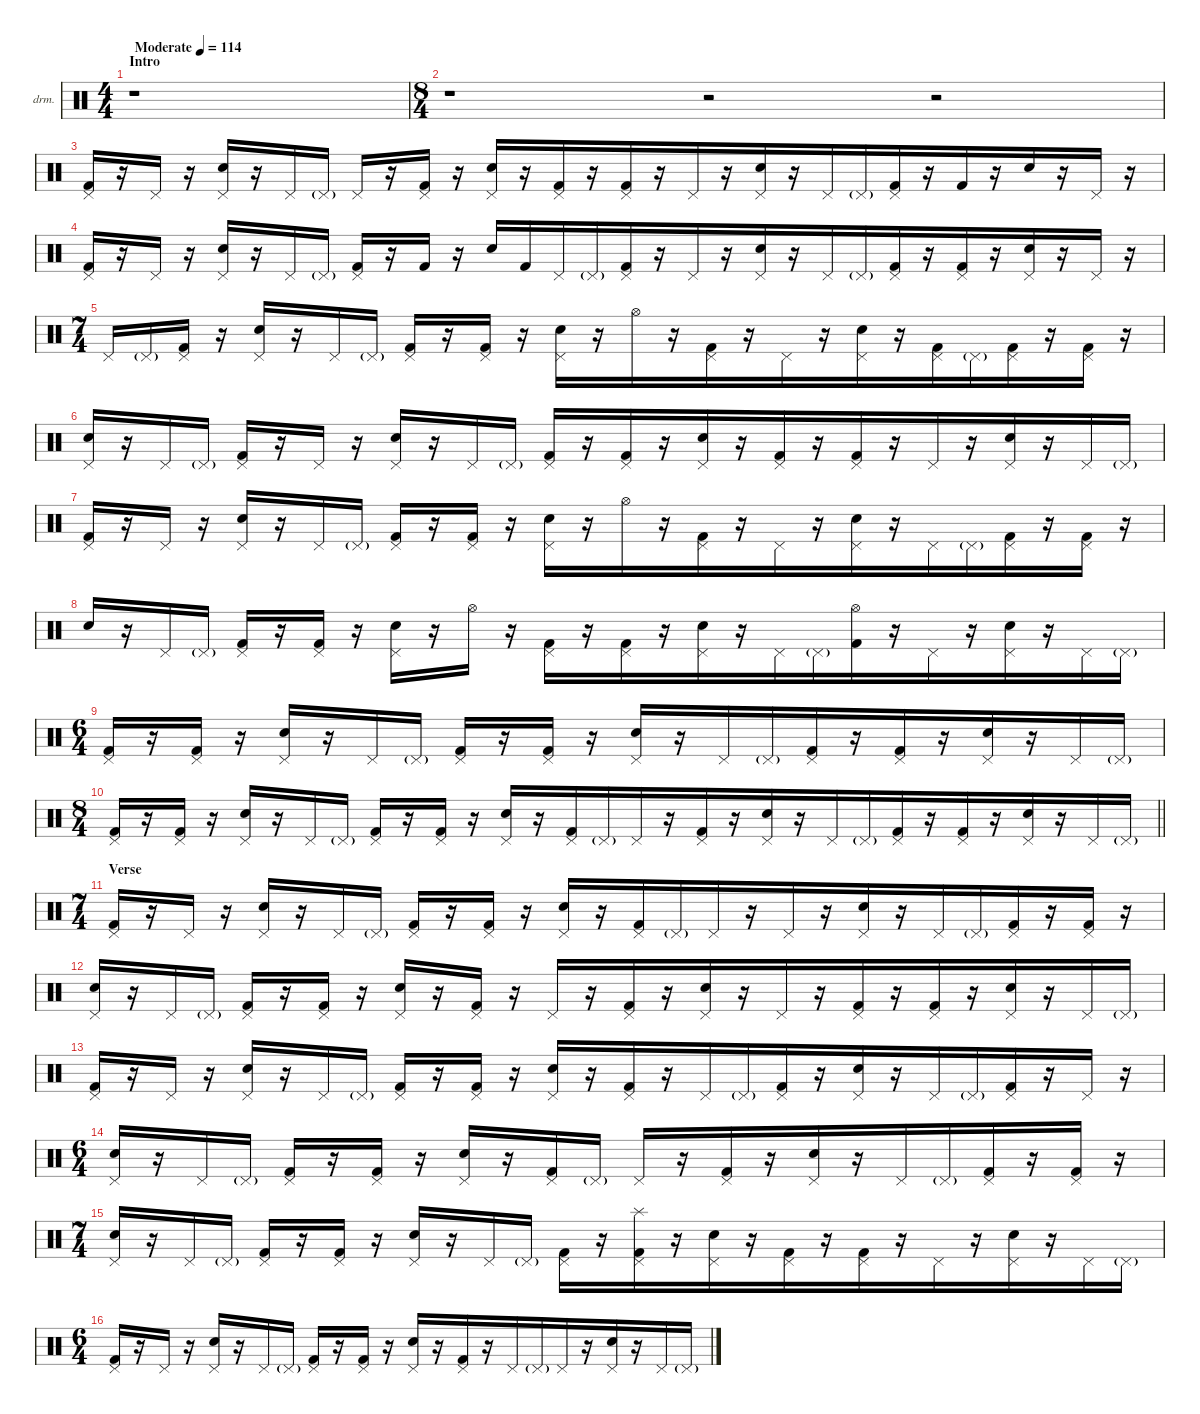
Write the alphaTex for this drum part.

\defaultSystemsLayout 4
\hideDynamics
\bracketExtendMode nobrackets
\firstSystemTrackNameOrientation horizontal
\otherSystemsTrackNameOrientation horizontal
\track ("Drums" "drm.") {instrument percussion}
\staff {score}
\articulation defaults
\ts (4 4)
\beaming (8 2 2 2 2)
\section ("" "Intro")
\tempo (114 "Moderate")
\clef neutral
\ks c
r.1{dy f} |
\ts (8 4)
\beaming (8 2 2 2 10)
r.1 r.2 r.2 |
("Pedal Hi-Hat (hit)" "Kick (hit) 2").16 r.16 "Pedal Hi-Hat (hit)".16 r.16 ("Pedal Hi-Hat (hit)" "Snare (hit) 2").16 r.16 "Pedal Hi-Hat (hit)".16 "Pedal Hi-Hat (hit)"{g}.16{dy mf} "Pedal Hi-Hat (hit)".16{dy f} r.16 ("Pedal Hi-Hat (hit)" "Kick (hit) 2").16 r.16 ("Pedal Hi-Hat (hit)" "Snare (hit) 2").16 r.16 ("Pedal Hi-Hat (hit)" "Kick (hit) 2").16 r.16 ("Pedal Hi-Hat (hit)" "Kick (hit) 2").16 r.16 "Pedal Hi-Hat (hit)".16 r.16 ("Pedal Hi-Hat (hit)" "Snare (hit) 2").16 r.16 "Pedal Hi-Hat (hit)".16 "Pedal Hi-Hat (hit)"{g}.16{dy mf} ("Pedal Hi-Hat (hit)" "Kick (hit) 2").16{dy f} r.16 "Kick (hit) 2".16 r.16 "Snare (hit) 2".16 r.16 "Pedal Hi-Hat (hit)".16 r.16 |
("Pedal Hi-Hat (hit)" "Kick (hit) 2").16 r.16 "Pedal Hi-Hat (hit)".16 r.16 ("Pedal Hi-Hat (hit)" "Snare (hit) 2").16 r.16 "Pedal Hi-Hat (hit)".16 "Pedal Hi-Hat (hit)"{g}.16{dy mf} ("Pedal Hi-Hat (hit)" "Kick (hit) 2").16{dy f} r.16 "Kick (hit) 2".16 r.16 "Snare (hit) 2".16 "Kick (hit) 2".16 "Pedal Hi-Hat (hit)".16 "Pedal Hi-Hat (hit)"{g}.16{dy mf} ("Pedal Hi-Hat (hit)" "Kick (hit) 2").16{dy f} r.16 "Pedal Hi-Hat (hit)".16 r.16 ("Pedal Hi-Hat (hit)" "Snare (hit) 2").16 r.16 "Pedal Hi-Hat (hit)".16 "Pedal Hi-Hat (hit)"{g}.16{dy mf} ("Pedal Hi-Hat (hit)" "Kick (hit) 2").16{dy f} r.16 ("Pedal Hi-Hat (hit)" "Kick (hit) 2").16 r.16 ("Pedal Hi-Hat (hit)" "Snare (hit) 2").16 r.16 "Pedal Hi-Hat (hit)".16 r.16 |
\ts (7 4)
\beaming (8 2 2 2 8)
"Pedal Hi-Hat (hit)".16 "Pedal Hi-Hat (hit)"{g}.16{dy mf} ("Pedal Hi-Hat (hit)" "Kick (hit) 2").16{dy f} r.16 ("Pedal Hi-Hat (hit)" "Snare (hit) 2").16 r.16 "Pedal Hi-Hat (hit)".16 "Pedal Hi-Hat (hit)"{g}.16{dy mf} ("Pedal Hi-Hat (hit)" "Kick (hit) 2").16{dy f} r.16 ("Pedal Hi-Hat (hit)" "Kick (hit) 2").16 r.16 ("Pedal Hi-Hat (hit)" "Snare (hit) 2").16 r.16 "Hi-Hat (open)".16 r.16 ("Pedal Hi-Hat (hit)" "Kick (hit) 2").16 r.16 "Pedal Hi-Hat (hit)".16 r.16 ("Pedal Hi-Hat (hit)" "Snare (hit) 2").16 r.16 ("Pedal Hi-Hat (hit)" "Kick (hit) 2").16 "Pedal Hi-Hat (hit)"{g}.16{dy mf} ("Pedal Hi-Hat (hit)" "Kick (hit) 2").16{dy f} r.16 ("Pedal Hi-Hat (hit)" "Kick (hit) 2").16 r.16 |
("Pedal Hi-Hat (hit)" "Snare (hit) 2").16 r.16 "Pedal Hi-Hat (hit)".16 "Pedal Hi-Hat (hit)"{g}.16{dy mf} ("Pedal Hi-Hat (hit)" "Kick (hit) 2").16{dy f} r.16 "Pedal Hi-Hat (hit)".16 r.16 ("Pedal Hi-Hat (hit)" "Snare (hit) 2").16 r.16 "Pedal Hi-Hat (hit)".16 "Pedal Hi-Hat (hit)"{g}.16{dy mf} ("Pedal Hi-Hat (hit)" "Kick (hit) 2").16{dy f} r.16 ("Pedal Hi-Hat (hit)" "Kick (hit) 2").16 r.16 ("Pedal Hi-Hat (hit)" "Snare (hit) 2").16 r.16 ("Pedal Hi-Hat (hit)" "Kick (hit) 2").16 r.16 ("Pedal Hi-Hat (hit)" "Kick (hit) 2").16 r.16 "Pedal Hi-Hat (hit)".16 r.16 ("Pedal Hi-Hat (hit)" "Snare (hit) 2").16 r.16 "Pedal Hi-Hat (hit)".16 "Pedal Hi-Hat (hit)"{g}.16{dy mf} |
("Pedal Hi-Hat (hit)" "Kick (hit) 2").16{dy f} r.16 "Pedal Hi-Hat (hit)".16 r.16 ("Pedal Hi-Hat (hit)" "Snare (hit) 2").16 r.16 "Pedal Hi-Hat (hit)".16 "Pedal Hi-Hat (hit)"{g}.16{dy mf} ("Pedal Hi-Hat (hit)" "Kick (hit) 2").16{dy f} r.16 ("Pedal Hi-Hat (hit)" "Kick (hit) 2").16 r.16 ("Pedal Hi-Hat (hit)" "Snare (hit) 2").16 r.16 "Hi-Hat (open)".16 r.16 ("Pedal Hi-Hat (hit)" "Kick (hit) 2").16 r.16 "Pedal Hi-Hat (hit)".16 r.16 ("Pedal Hi-Hat (hit)" "Snare (hit) 2").16 r.16 "Pedal Hi-Hat (hit)".16 "Pedal Hi-Hat (hit)"{g}.16{dy mf} ("Pedal Hi-Hat (hit)" "Kick (hit) 2").16{dy f} r.16 ("Pedal Hi-Hat (hit)" "Kick (hit) 2").16 r.16 |
"Snare (hit) 2".16 r.16 "Pedal Hi-Hat (hit)".16 "Pedal Hi-Hat (hit)"{g}.16{dy mf} ("Pedal Hi-Hat (hit)" "Kick (hit) 2").16{dy f} r.16 ("Pedal Hi-Hat (hit)" "Kick (hit) 2").16 r.16 ("Pedal Hi-Hat (hit)" "Snare (hit) 2").16 r.16 "Hi-Hat (open)".16 r.16 ("Pedal Hi-Hat (hit)" "Kick (hit) 2").16 r.16 ("Pedal Hi-Hat (hit)" "Kick (hit) 2").16 r.16 ("Pedal Hi-Hat (hit)" "Snare (hit) 2").16 r.16 "Pedal Hi-Hat (hit)".16 "Pedal Hi-Hat (hit)"{g}.16{dy mf} ("Hi-Hat (open)" "Kick (hit) 2").16{dy f} r.16 "Pedal Hi-Hat (hit)".16 r.16 ("Pedal Hi-Hat (hit)" "Snare (hit) 2").16 r.16 "Pedal Hi-Hat (hit)".16 "Pedal Hi-Hat (hit)"{g}.16{dy mf} |
\ts (6 4)
\beaming (8 2 2 2 6)
("Pedal Hi-Hat (hit)" "Kick (hit) 2").16{dy f} r.16 ("Pedal Hi-Hat (hit)" "Kick (hit) 2").16 r.16 ("Pedal Hi-Hat (hit)" "Snare (hit) 2").16 r.16 "Pedal Hi-Hat (hit)".16 "Pedal Hi-Hat (hit)"{g}.16{dy mf} ("Pedal Hi-Hat (hit)" "Kick (hit) 2").16{dy f} r.16 ("Pedal Hi-Hat (hit)" "Kick (hit) 2").16 r.16 ("Pedal Hi-Hat (hit)" "Snare (hit) 2").16 r.16 "Pedal Hi-Hat (hit)".16 "Pedal Hi-Hat (hit)"{g}.16{dy mf} ("Pedal Hi-Hat (hit)" "Kick (hit) 2").16{dy f} r.16 ("Pedal Hi-Hat (hit)" "Kick (hit) 2").16 r.16 ("Pedal Hi-Hat (hit)" "Snare (hit) 2").16 r.16 "Pedal Hi-Hat (hit)".16 "Pedal Hi-Hat (hit)"{g}.16{dy mf} |
\ts (8 4)
\beaming (8 2 2 2 10)
\barLineRight lightlight
("Pedal Hi-Hat (hit)" "Kick (hit) 2").16{dy f} r.16 ("Pedal Hi-Hat (hit)" "Kick (hit) 2").16 r.16 ("Pedal Hi-Hat (hit)" "Snare (hit) 2").16 r.16 "Pedal Hi-Hat (hit)".16 "Pedal Hi-Hat (hit)"{g}.16{dy mf} ("Pedal Hi-Hat (hit)" "Kick (hit) 2").16{dy f} r.16 ("Pedal Hi-Hat (hit)" "Kick (hit) 2").16 r.16 ("Pedal Hi-Hat (hit)" "Snare (hit) 2").16 r.16 ("Pedal Hi-Hat (hit)" "Kick (hit) 2").16 "Pedal Hi-Hat (hit)"{g}.16{dy mf} "Pedal Hi-Hat (hit)".16{dy f} r.16 ("Pedal Hi-Hat (hit)" "Kick (hit) 2").16 r.16 ("Pedal Hi-Hat (hit)" "Snare (hit) 2").16 r.16 "Pedal Hi-Hat (hit)".16 "Pedal Hi-Hat (hit)"{g}.16{dy mf} ("Pedal Hi-Hat (hit)" "Kick (hit) 2").16{dy f} r.16 ("Pedal Hi-Hat (hit)" "Kick (hit) 2").16 r.16 ("Pedal Hi-Hat (hit)" "Snare (hit) 2").16 r.16 "Pedal Hi-Hat (hit)".16 "Pedal Hi-Hat (hit)"{g}.16{dy mf} |
\ts (7 4)
\beaming (8 2 2 2 8)
\section ("" "Verse")
("Pedal Hi-Hat (hit)" "Kick (hit) 2").16{dy f} r.16 "Pedal Hi-Hat (hit)".16 r.16 ("Pedal Hi-Hat (hit)" "Snare (hit) 2").16 r.16 "Pedal Hi-Hat (hit)".16 "Pedal Hi-Hat (hit)"{g}.16{dy mf} ("Pedal Hi-Hat (hit)" "Kick (hit) 2").16{dy f} r.16 ("Pedal Hi-Hat (hit)" "Kick (hit) 2").16 r.16 ("Pedal Hi-Hat (hit)" "Snare (hit) 2").16 r.16 ("Pedal Hi-Hat (hit)" "Kick (hit) 2").16 "Pedal Hi-Hat (hit)"{g}.16{dy mf} "Pedal Hi-Hat (hit)".16{dy f} r.16 "Pedal Hi-Hat (hit)".16 r.16 ("Pedal Hi-Hat (hit)" "Snare (hit) 2").16 r.16 "Pedal Hi-Hat (hit)".16 "Pedal Hi-Hat (hit)"{g}.16{dy mf} ("Pedal Hi-Hat (hit)" "Kick (hit) 2").16{dy f} r.16 ("Pedal Hi-Hat (hit)" "Kick (hit) 2").16 r.16 |
("Pedal Hi-Hat (hit)" "Snare (hit) 2").16 r.16 "Pedal Hi-Hat (hit)".16 "Pedal Hi-Hat (hit)"{g}.16{dy mf} ("Pedal Hi-Hat (hit)" "Kick (hit) 2").16{dy f} r.16 ("Pedal Hi-Hat (hit)" "Kick (hit) 2").16 r.16 ("Pedal Hi-Hat (hit)" "Snare (hit) 2").16 r.16 ("Pedal Hi-Hat (hit)" "Kick (hit) 2").16 r.16 "Pedal Hi-Hat (hit)".16 r.16 ("Pedal Hi-Hat (hit)" "Kick (hit) 2").16 r.16 ("Pedal Hi-Hat (hit)" "Snare (hit) 2").16 r.16 "Pedal Hi-Hat (hit)".16 r.16 ("Pedal Hi-Hat (hit)" "Kick (hit) 2").16 r.16 ("Pedal Hi-Hat (hit)" "Kick (hit) 2").16 r.16 ("Pedal Hi-Hat (hit)" "Snare (hit) 2").16 r.16 "Pedal Hi-Hat (hit)".16 "Pedal Hi-Hat (hit)"{g}.16{dy mf} |
("Pedal Hi-Hat (hit)" "Kick (hit) 2").16{dy f} r.16 "Pedal Hi-Hat (hit)".16 r.16 ("Pedal Hi-Hat (hit)" "Snare (hit) 2").16 r.16 "Pedal Hi-Hat (hit)".16 "Pedal Hi-Hat (hit)"{g}.16{dy mf} ("Pedal Hi-Hat (hit)" "Kick (hit) 2").16{dy f} r.16 ("Pedal Hi-Hat (hit)" "Kick (hit) 2").16 r.16 ("Pedal Hi-Hat (hit)" "Snare (hit) 2").16 r.16 ("Pedal Hi-Hat (hit)" "Kick (hit) 2").16 r.16 "Pedal Hi-Hat (hit)".16 "Pedal Hi-Hat (hit)"{g}.16{dy mf} ("Pedal Hi-Hat (hit)" "Kick (hit) 2").16{dy f} r.16 ("Pedal Hi-Hat (hit)" "Snare (hit) 2").16 r.16 "Pedal Hi-Hat (hit)".16 "Pedal Hi-Hat (hit)"{g}.16{dy mf} ("Pedal Hi-Hat (hit)" "Kick (hit) 2").16{dy f} r.16 "Pedal Hi-Hat (hit)".16 r.16 |
\ts (6 4)
\beaming (8 2 2 2 6)
("Pedal Hi-Hat (hit)" "Snare (hit) 2").16 r.16 "Pedal Hi-Hat (hit)".16 "Pedal Hi-Hat (hit)"{g}.16{dy mf} ("Pedal Hi-Hat (hit)" "Kick (hit) 2").16{dy f} r.16 ("Pedal Hi-Hat (hit)" "Kick (hit) 2").16 r.16 ("Pedal Hi-Hat (hit)" "Snare (hit) 2").16 r.16 ("Pedal Hi-Hat (hit)" "Kick (hit) 2").16 "Pedal Hi-Hat (hit)"{g}.16{dy mf} "Pedal Hi-Hat (hit)".16{dy f} r.16 ("Pedal Hi-Hat (hit)" "Kick (hit) 2").16 r.16 ("Pedal Hi-Hat (hit)" "Snare (hit) 2").16 r.16 "Pedal Hi-Hat (hit)".16 "Pedal Hi-Hat (hit)"{g}.16{dy mf} ("Pedal Hi-Hat (hit)" "Kick (hit) 2").16{dy f} r.16 ("Pedal Hi-Hat (hit)" "Kick (hit) 2").16 r.16 |
\ts (7 4)
\beaming (8 2 2 2 8)
("Pedal Hi-Hat (hit)" "Snare (hit) 2").16 r.16 "Pedal Hi-Hat (hit)".16 "Pedal Hi-Hat (hit)"{g}.16{dy mf} ("Pedal Hi-Hat (hit)" "Kick (hit) 2").16{dy f} r.16 ("Pedal Hi-Hat (hit)" "Kick (hit) 2").16 r.16 ("Pedal Hi-Hat (hit)" "Snare (hit) 2").16 r.16 "Pedal Hi-Hat (hit)".16 "Pedal Hi-Hat (hit)"{g}.16{dy mf} ("Pedal Hi-Hat (hit)" "Kick (hit) 2").16{dy f} r.16 ("Splash (hit)" "Pedal Hi-Hat (hit)" "Kick (hit) 2").16 r.16 ("Pedal Hi-Hat (hit)" "Snare (hit) 2").16 r.16 ("Pedal Hi-Hat (hit)" "Kick (hit) 2").16 r.16 ("Pedal Hi-Hat (hit)" "Kick (hit) 2").16 r.16 "Pedal Hi-Hat (hit)".16 r.16 ("Pedal Hi-Hat (hit)" "Snare (hit) 2").16 r.16 "Pedal Hi-Hat (hit)".16 "Pedal Hi-Hat (hit)"{g}.16{dy mf} |
\ts (6 4)
\beaming (8 2 2 2 6)
("Pedal Hi-Hat (hit)" "Kick (hit) 2").16{dy f} r.16 "Pedal Hi-Hat (hit)".16 r.16 ("Pedal Hi-Hat (hit)" "Snare (hit) 2").16 r.16 "Pedal Hi-Hat (hit)".16 "Pedal Hi-Hat (hit)"{g}.16{dy mf} ("Pedal Hi-Hat (hit)" "Kick (hit) 2").16{dy f} r.16 ("Pedal Hi-Hat (hit)" "Kick (hit) 2").16 r.16 ("Pedal Hi-Hat (hit)" "Snare (hit) 2").16 r.16 ("Pedal Hi-Hat (hit)" "Kick (hit) 2").16 r.16 "Pedal Hi-Hat (hit)".16 "Pedal Hi-Hat (hit)"{g}.16{dy mf} "Pedal Hi-Hat (hit)".16{dy f} r.16 ("Pedal Hi-Hat (hit)" "Snare (hit) 2").16 r.16 "Pedal Hi-Hat (hit)".16 "Pedal Hi-Hat (hit)"{g}.16{dy mf}
